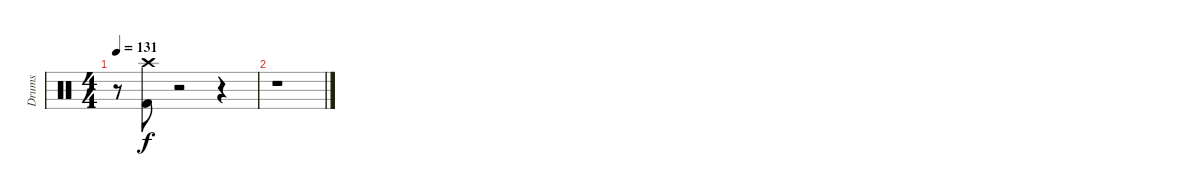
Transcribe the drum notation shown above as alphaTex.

\track ("Drums" "Drums") {instrument percussion}
\staff {score}
\articulation defaults
\ts (4 4)
\tempo 131
\clef neutral
\ks c
r.8{dy f} ("Kick (hit) 2" "Crash high (hit)").8 r.2 r.4 |
r.1
